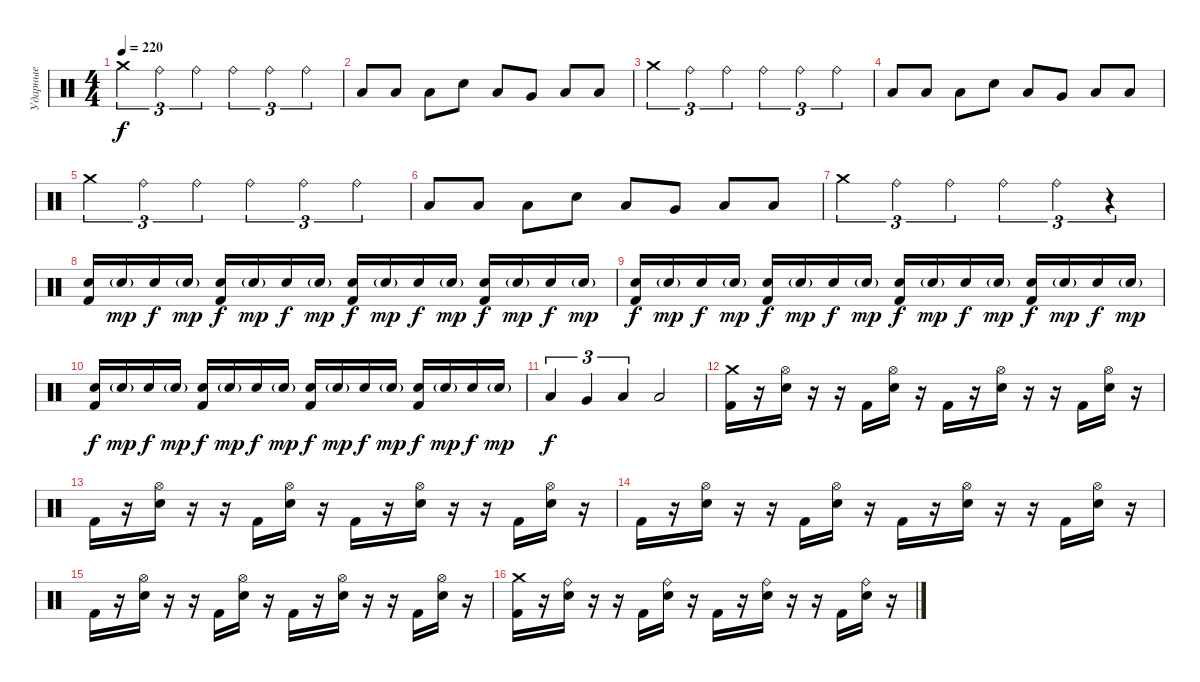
\track ("Ударные" "Ударные") {instrument percussion}
\staff {score}
\articulation defaults
\ts (4 4)
\tempo 220
\clef neutral
\ks c "Crash medium (hit)".4{tu (3 2) dy f} "Ride (bell)".4{tu (3 2)} "Ride (bell)".4{tu (3 2)} "Ride (bell)".4{tu (3 2)} "Ride (bell)".4{tu (3 2)} "Ride (bell)".4{tu (3 2)}
|
"Low Floor Tom (hit)".8 "Low Floor Tom (hit)".8 "Low Floor Tom (hit)".8 "Snare (hit) 2".8 "Low Floor Tom (hit)".8 "Very Low Tom (hit)".8 "Low Floor Tom (hit)".8 "Low Floor Tom (hit)".8 |
"Crash medium (hit)".4{tu (3 2)} "Ride (bell)".4{tu (3 2)} "Ride (bell)".4{tu (3 2)} "Ride (bell)".4{tu (3 2)} "Ride (bell)".4{tu (3 2)} "Ride (bell)".4{tu (3 2)} |
"Low Floor Tom (hit)".8 "Low Floor Tom (hit)".8 "Low Floor Tom (hit)".8 "Snare (hit) 2".8 "Low Floor Tom (hit)".8 "Very Low Tom (hit)".8 "Low Floor Tom (hit)".8 "Low Floor Tom (hit)".8 |
"Crash medium (hit)".4{tu (3 2)} "Ride (bell)".4{tu (3 2)} "Ride (bell)".4{tu (3 2)} "Ride (bell)".4{tu (3 2)} "Ride (bell)".4{tu (3 2)} "Ride (bell)".4{tu (3 2)} |
"Low Floor Tom (hit)".8 "Low Floor Tom (hit)".8 "Low Floor Tom (hit)".8 "Snare (hit) 2".8 "Low Floor Tom (hit)".8 "Very Low Tom (hit)".8 "Low Floor Tom (hit)".8 "Low Floor Tom (hit)".8 |
"Crash medium (hit)".4{tu (3 2)} "Ride (bell)".4{tu (3 2)} "Ride (bell)".4{tu (3 2)} "Ride (bell)".4{tu (3 2)} "Ride (bell)".4{tu (3 2)} r.4{tu (3 2)} |
("Snare (hit) 2" "Kick (hit) 2").16 "Snare (hit) 2"{g}.16{dy mp} "Snare (hit) 2".16{dy f} "Snare (hit) 2"{g}.16{dy mp} ("Snare (hit) 2" "Kick (hit) 2").16{dy f} "Snare (hit) 2"{g}.16{dy mp} "Snare (hit) 2".16{dy f} "Snare (hit) 2"{g}.16{dy mp} ("Snare (hit) 2" "Kick (hit) 2").16{dy f} "Snare (hit) 2"{g}.16{dy mp} "Snare (hit) 2".16{dy f} "Snare (hit) 2"{g}.16{dy mp} ("Snare (hit) 2" "Kick (hit) 2").16{dy f} "Snare (hit) 2"{g}.16{dy mp} "Snare (hit) 2".16{dy f} "Snare (hit) 2"{g}.16{dy mp} |
("Snare (hit) 2" "Kick (hit) 2").16{dy f} "Snare (hit) 2"{g}.16{dy mp} "Snare (hit) 2".16{dy f} "Snare (hit) 2"{g}.16{dy mp} ("Snare (hit) 2" "Kick (hit) 2").16{dy f} "Snare (hit) 2"{g}.16{dy mp} "Snare (hit) 2".16{dy f} "Snare (hit) 2"{g}.16{dy mp} ("Snare (hit) 2" "Kick (hit) 2").16{dy f} "Snare (hit) 2"{g}.16{dy mp} "Snare (hit) 2".16{dy f} "Snare (hit) 2"{g}.16{dy mp} ("Snare (hit) 2" "Kick (hit) 2").16{dy f} "Snare (hit) 2"{g}.16{dy mp} "Snare (hit) 2".16{dy f} "Snare (hit) 2"{g}.16{dy mp} |
("Snare (hit) 2" "Kick (hit) 2").16{dy f} "Snare (hit) 2"{g}.16{dy mp} "Snare (hit) 2".16{dy f} "Snare (hit) 2"{g}.16{dy mp} ("Snare (hit) 2" "Kick (hit) 2").16{dy f} "Snare (hit) 2"{g}.16{dy mp} "Snare (hit) 2".16{dy f} "Snare (hit) 2"{g}.16{dy mp} ("Snare (hit) 2" "Kick (hit) 2").16{dy f} "Snare (hit) 2"{g}.16{dy mp} "Snare (hit) 2".16{dy f} "Snare (hit) 2"{g}.16{dy mp} ("Snare (hit) 2" "Kick (hit) 2").16{dy f} "Snare (hit) 2"{g}.16{dy mp} "Snare (hit) 2".16{dy f} "Snare (hit) 2"{g}.16{dy mp} |
"Low Tom (hit)".4{tu (3 2) dy f} "Very Low Tom (hit)".4{tu (3 2)} "Low Floor Tom (hit)".4{tu (3 2)} "Low Floor Tom (hit)".2 |
("Crash medium (hit)" "Kick (hit) 2").16 r.16 ("Hi-Hat (open)" "Snare (hit) 2").16 r.16 r.16 "Kick (hit) 2".16 ("Hi-Hat (open)" "Snare (hit) 2").16 r.16 "Kick (hit) 2".16 r.16 ("Hi-Hat (open)" "Snare (hit) 2").16 r.16 r.16 "Kick (hit) 2".16 ("Hi-Hat (open)" "Snare (hit) 2").16 r.16 |
"Kick (hit) 2".16 r.16 ("Hi-Hat (open)" "Snare (hit) 2").16 r.16 r.16 "Kick (hit) 2".16 ("Hi-Hat (open)" "Snare (hit) 2").16 r.16 "Kick (hit) 2".16 r.16 ("Hi-Hat (open)" "Snare (hit) 2").16 r.16 r.16 "Kick (hit) 2".16 ("Hi-Hat (open)" "Snare (hit) 2").16 r.16 |
"Kick (hit) 2".16 r.16 ("Hi-Hat (open)" "Snare (hit) 2").16 r.16 r.16 "Kick (hit) 2".16 ("Hi-Hat (open)" "Snare (hit) 2").16 r.16 "Kick (hit) 2".16 r.16 ("Hi-Hat (open)" "Snare (hit) 2").16 r.16 r.16 "Kick (hit) 2".16 ("Hi-Hat (open)" "Snare (hit) 2").16 r.16 |
"Kick (hit) 2".16 r.16 ("Hi-Hat (open)" "Snare (hit) 2").16 r.16 r.16 "Kick (hit) 2".16 ("Hi-Hat (open)" "Snare (hit) 2").16 r.16 "Kick (hit) 2".16 r.16 ("Hi-Hat (open)" "Snare (hit) 2").16 r.16 r.16 "Kick (hit) 2".16 ("Hi-Hat (open)" "Snare (hit) 2").16 r.16 |
("Crash medium (hit)" "Kick (hit) 2").16 r.16 ("Ride (bell)" "Snare (hit) 2").16 r.16 r.16 "Kick (hit) 2".16 ("Ride (bell)" "Snare (hit) 2").16 r.16 "Kick (hit) 2".16 r.16 ("Ride (bell)" "Snare (hit) 2").16 r.16 r.16 "Kick (hit) 2".16 ("Ride (bell)" "Snare (hit) 2").16 r.16
